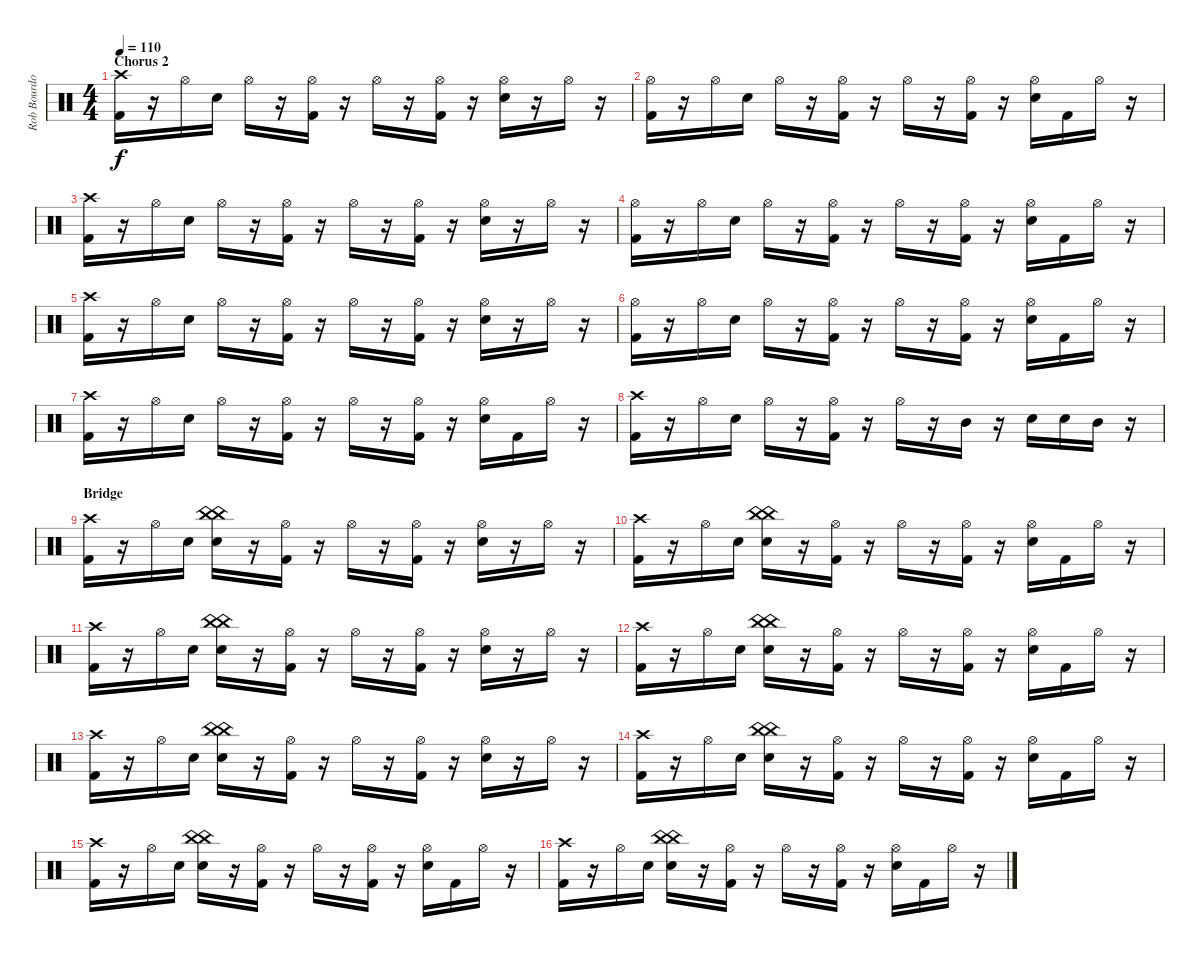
\track ("Rob Bourdon (Drums)" "Rob Bourdo") {instrument percussion}
\staff {score}
\articulation defaults
\ts (4 4)
\section ("" "Chorus 2")
\tempo 110
\clef neutral
\ks c
("Crash high (hit)" "Kick (hit) 2").16{dy f} r.16 "Hi-Hat (open)".16 "Electric Snare (hit)".16 "Hi-Hat (open)".16 r.16 ("Hi-Hat (open)" "Kick (hit) 2").16 r.16 "Hi-Hat (open)".16 r.16 ("Hi-Hat (open)" "Kick (hit) 2").16 r.16 ("Hi-Hat (open)" "Electric Snare (hit)").16 r.16 "Hi-Hat (open)".16 r.16 |
("Hi-Hat (open)" "Kick (hit) 2").16 r.16 "Hi-Hat (open)".16 "Electric Snare (hit)".16 "Hi-Hat (open)".16 r.16 ("Hi-Hat (open)" "Kick (hit) 2").16 r.16 "Hi-Hat (open)".16 r.16 ("Hi-Hat (open)" "Kick (hit) 2").16 r.16 ("Hi-Hat (open)" "Electric Snare (hit)").16 "Kick (hit) 2".16 "Hi-Hat (open)".16 r.16 |
("Crash high (hit)" "Kick (hit) 2").16 r.16 "Hi-Hat (open)".16 "Electric Snare (hit)".16 "Hi-Hat (open)".16 r.16 ("Hi-Hat (open)" "Kick (hit) 2").16 r.16 "Hi-Hat (open)".16 r.16 ("Hi-Hat (open)" "Kick (hit) 2").16 r.16 ("Hi-Hat (open)" "Electric Snare (hit)").16 r.16 "Hi-Hat (open)".16 r.16 |
("Hi-Hat (open)" "Kick (hit) 2").16 r.16 "Hi-Hat (open)".16 "Electric Snare (hit)".16 "Hi-Hat (open)".16 r.16 ("Hi-Hat (open)" "Kick (hit) 2").16 r.16 "Hi-Hat (open)".16 r.16 ("Hi-Hat (open)" "Kick (hit) 2").16 r.16 ("Hi-Hat (open)" "Electric Snare (hit)").16 "Kick (hit) 2".16 "Hi-Hat (open)".16 r.16 |
("Crash high (hit)" "Kick (hit) 2").16 r.16 "Hi-Hat (open)".16 "Electric Snare (hit)".16 "Hi-Hat (open)".16 r.16 ("Hi-Hat (open)" "Kick (hit) 2").16 r.16 "Hi-Hat (open)".16 r.16 ("Hi-Hat (open)" "Kick (hit) 2").16 r.16 ("Hi-Hat (open)" "Electric Snare (hit)").16 r.16 "Hi-Hat (open)".16 r.16 |
("Hi-Hat (open)" "Kick (hit) 2").16 r.16 "Hi-Hat (open)".16 "Electric Snare (hit)".16 "Hi-Hat (open)".16 r.16 ("Hi-Hat (open)" "Kick (hit) 2").16 r.16 "Hi-Hat (open)".16 r.16 ("Hi-Hat (open)" "Kick (hit) 2").16 r.16 ("Hi-Hat (open)" "Electric Snare (hit)").16 "Kick (hit) 2".16 "Hi-Hat (open)".16 r.16 |
("Crash high (hit)" "Kick (hit) 2").16 r.16 "Hi-Hat (open)".16 "Electric Snare (hit)".16 "Hi-Hat (open)".16 r.16 ("Hi-Hat (open)" "Kick (hit) 2").16 r.16 "Hi-Hat (open)".16 r.16 ("Hi-Hat (open)" "Kick (hit) 2").16 r.16 ("Hi-Hat (open)" "Electric Snare (hit)").16 "Kick (hit) 2".16 "Hi-Hat (open)".16 r.16 |
("Crash high (hit)" "Kick (hit) 2").16 r.16 "Hi-Hat (open)".16 "Electric Snare (hit)".16 "Hi-Hat (open)".16 r.16 ("Hi-Hat (open)" "Kick (hit) 2").16 r.16 "Hi-Hat (open)".16 r.16 "Mid Tom (hit)".16 r.16 "Electric Snare (hit)".16 "Electric Snare (hit)".16 "Mid Tom (hit)".16 r.16 |
\section ("" "Bridge")
("Crash high (hit)" "Kick (hit) 2").16 r.16 "Hi-Hat (open)".16 "Electric Snare (hit)".16 ("China (hit)" "China (hit)" "Electric Snare (hit)").16 r.16 ("Hi-Hat (open)" "Kick (hit) 2").16 r.16 "Hi-Hat (open)".16 r.16 ("Hi-Hat (open)" "Kick (hit) 2").16 r.16 ("Hi-Hat (open)" "Electric Snare (hit)").16 r.16 "Hi-Hat (open)".16 r.16 |
("Crash high (hit)" "Kick (hit) 2").16 r.16 "Hi-Hat (open)".16 "Electric Snare (hit)".16 ("China (hit)" "China (hit)" "Electric Snare (hit)").16 r.16 ("Hi-Hat (open)" "Kick (hit) 2").16 r.16 "Hi-Hat (open)".16 r.16 ("Hi-Hat (open)" "Kick (hit) 2").16 r.16 ("Hi-Hat (open)" "Electric Snare (hit)").16 "Kick (hit) 2".16 "Hi-Hat (open)".16 r.16 |
("Crash high (hit)" "Kick (hit) 2").16 r.16 "Hi-Hat (open)".16 "Electric Snare (hit)".16 ("China (hit)" "China (hit)" "Electric Snare (hit)").16 r.16 ("Hi-Hat (open)" "Kick (hit) 2").16 r.16 "Hi-Hat (open)".16 r.16 ("Hi-Hat (open)" "Kick (hit) 2").16 r.16 ("Hi-Hat (open)" "Electric Snare (hit)").16 r.16 "Hi-Hat (open)".16 r.16 |
("Crash high (hit)" "Kick (hit) 2").16 r.16 "Hi-Hat (open)".16 "Electric Snare (hit)".16 ("China (hit)" "China (hit)" "Electric Snare (hit)").16 r.16 ("Hi-Hat (open)" "Kick (hit) 2").16 r.16 "Hi-Hat (open)".16 r.16 ("Hi-Hat (open)" "Kick (hit) 2").16 r.16 ("Hi-Hat (open)" "Electric Snare (hit)").16 "Kick (hit) 2".16 "Hi-Hat (open)".16 r.16 |
("Crash high (hit)" "Kick (hit) 2").16 r.16 "Hi-Hat (open)".16 "Electric Snare (hit)".16 ("China (hit)" "China (hit)" "Electric Snare (hit)").16 r.16 ("Hi-Hat (open)" "Kick (hit) 2").16 r.16 "Hi-Hat (open)".16 r.16 ("Hi-Hat (open)" "Kick (hit) 2").16 r.16 ("Hi-Hat (open)" "Electric Snare (hit)").16 r.16 "Hi-Hat (open)".16 r.16 |
("Crash high (hit)" "Kick (hit) 2").16 r.16 "Hi-Hat (open)".16 "Electric Snare (hit)".16 ("China (hit)" "China (hit)" "Electric Snare (hit)").16 r.16 ("Hi-Hat (open)" "Kick (hit) 2").16 r.16 "Hi-Hat (open)".16 r.16 ("Hi-Hat (open)" "Kick (hit) 2").16 r.16 ("Hi-Hat (open)" "Electric Snare (hit)").16 "Kick (hit) 2".16 "Hi-Hat (open)".16 r.16 |
("Crash high (hit)" "Kick (hit) 2").16 r.16 "Hi-Hat (open)".16 "Electric Snare (hit)".16 ("China (hit)" "China (hit)" "Electric Snare (hit)").16 r.16 ("Hi-Hat (open)" "Kick (hit) 2").16 r.16 "Hi-Hat (open)".16 r.16 ("Hi-Hat (open)" "Kick (hit) 2").16 r.16 ("Hi-Hat (open)" "Electric Snare (hit)").16 "Kick (hit) 2".16 "Hi-Hat (open)".16 r.16 |
("Crash high (hit)" "Kick (hit) 2").16 r.16 "Hi-Hat (open)".16 "Electric Snare (hit)".16 ("China (hit)" "China (hit)" "Electric Snare (hit)").16 r.16 ("Hi-Hat (open)" "Kick (hit) 2").16 r.16 "Hi-Hat (open)".16 r.16 ("Hi-Hat (open)" "Kick (hit) 2").16 r.16 ("Hi-Hat (open)" "Electric Snare (hit)").16 "Kick (hit) 2".16 "Hi-Hat (open)".16 r.16
